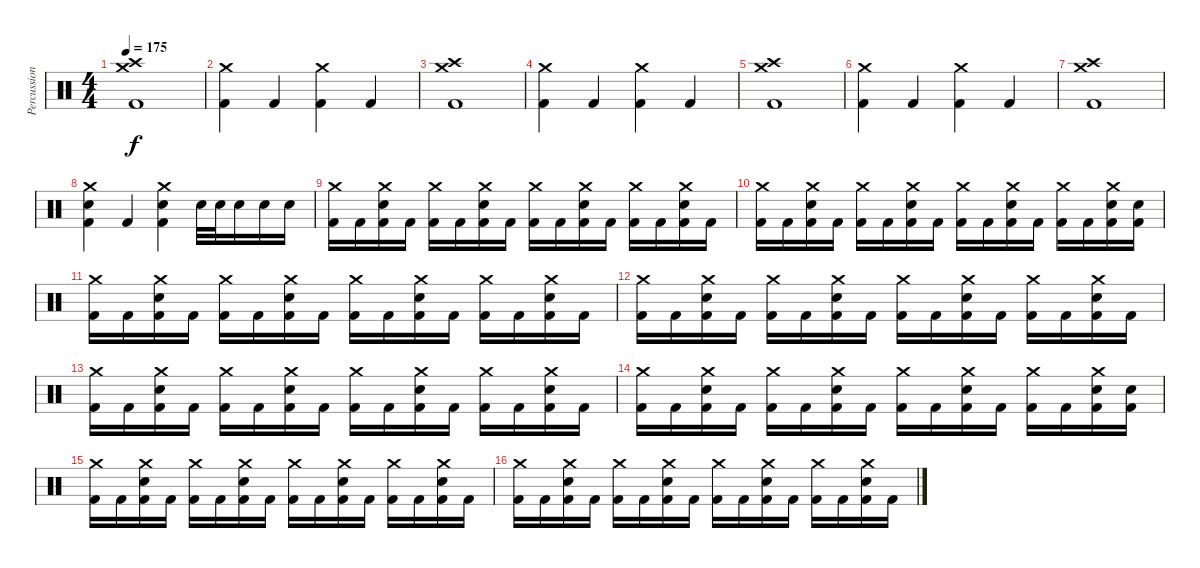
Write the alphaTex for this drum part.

\track ("Percussion" "Percussion") {instrument percussion}
\staff {score}
\articulation defaults
\ts (4 4)
\tempo 175
\clef neutral
\ks c
("Crash medium (hit)" "Crash high (hit)" "Kick (hit) 2").1{dy f} |
("Crash medium (hit)" "Kick (hit) 2").4 "Kick (hit) 2".4 ("Crash medium (hit)" "Kick (hit) 2").4 "Kick (hit) 2".4 |
("Crash medium (hit)" "Crash high (hit)" "Kick (hit) 2").1 |
("Crash medium (hit)" "Kick (hit) 2").4 "Kick (hit) 2".4 ("Crash medium (hit)" "Kick (hit) 2").4 "Kick (hit) 2".4 |
("Crash medium (hit)" "Crash high (hit)" "Kick (hit) 2").1 |
("Crash medium (hit)" "Kick (hit) 2").4 "Kick (hit) 2".4 ("Crash medium (hit)" "Kick (hit) 2").4 "Kick (hit) 2".4 |
("Crash medium (hit)" "Crash high (hit)" "Kick (hit) 2").1 |
("Crash medium (hit)" "Electric Snare (hit)" "Kick (hit) 2").4 "Kick (hit) 2".4 ("Crash medium (hit)" "Electric Snare (hit)" "Kick (hit) 2").4 "Electric Snare (hit)".32 "Electric Snare (hit)".32 "Electric Snare (hit)".16 "Electric Snare (hit)".16 "Electric Snare (hit)".16 |
("Crash medium (hit)" "Kick (hit) 2").16 "Kick (hit) 2".16 ("Crash medium (hit)" "Electric Snare (hit)" "Kick (hit) 2").16 "Kick (hit) 2".16 ("Crash medium (hit)" "Kick (hit) 2").16 "Kick (hit) 2".16 ("Crash medium (hit)" "Electric Snare (hit)" "Kick (hit) 2").16 "Kick (hit) 2".16 ("Crash medium (hit)" "Kick (hit) 2").16 "Kick (hit) 2".16 ("Crash medium (hit)" "Electric Snare (hit)" "Kick (hit) 2").16 "Kick (hit) 2".16 ("Crash medium (hit)" "Kick (hit) 2").16 "Kick (hit) 2".16 ("Crash medium (hit)" "Electric Snare (hit)" "Kick (hit) 2").16 "Kick (hit) 2".16 |
("Crash medium (hit)" "Kick (hit) 2").16 "Kick (hit) 2".16 ("Crash medium (hit)" "Electric Snare (hit)" "Kick (hit) 2").16 "Kick (hit) 2".16 ("Crash medium (hit)" "Kick (hit) 2").16 "Kick (hit) 2".16 ("Crash medium (hit)" "Electric Snare (hit)" "Kick (hit) 2").16 "Kick (hit) 2".16 ("Crash medium (hit)" "Kick (hit) 2").16 "Kick (hit) 2".16 ("Crash medium (hit)" "Electric Snare (hit)" "Kick (hit) 2").16 "Kick (hit) 2".16 ("Crash medium (hit)" "Kick (hit) 2").16 "Kick (hit) 2".16 ("Crash medium (hit)" "Electric Snare (hit)" "Kick (hit) 2").16 ("Electric Snare (hit)" "Kick (hit) 2").16 |
("Crash medium (hit)" "Kick (hit) 2").16 "Kick (hit) 2".16 ("Crash medium (hit)" "Electric Snare (hit)" "Kick (hit) 2").16 "Kick (hit) 2".16 ("Crash medium (hit)" "Kick (hit) 2").16 "Kick (hit) 2".16 ("Crash medium (hit)" "Electric Snare (hit)" "Kick (hit) 2").16 "Kick (hit) 2".16 ("Crash medium (hit)" "Kick (hit) 2").16 "Kick (hit) 2".16 ("Crash medium (hit)" "Electric Snare (hit)" "Kick (hit) 2").16 "Kick (hit) 2".16 ("Crash medium (hit)" "Kick (hit) 2").16 "Kick (hit) 2".16 ("Crash medium (hit)" "Electric Snare (hit)" "Kick (hit) 2").16 "Kick (hit) 2".16 |
("Crash medium (hit)" "Kick (hit) 2").16 "Kick (hit) 2".16 ("Crash medium (hit)" "Electric Snare (hit)" "Kick (hit) 2").16 "Kick (hit) 2".16 ("Crash medium (hit)" "Kick (hit) 2").16 "Kick (hit) 2".16 ("Crash medium (hit)" "Electric Snare (hit)" "Kick (hit) 2").16 "Kick (hit) 2".16 ("Crash medium (hit)" "Kick (hit) 2").16 "Kick (hit) 2".16 ("Crash medium (hit)" "Electric Snare (hit)" "Kick (hit) 2").16 "Kick (hit) 2".16 ("Crash medium (hit)" "Kick (hit) 2").16 "Kick (hit) 2".16 ("Crash medium (hit)" "Electric Snare (hit)" "Kick (hit) 2").16 "Kick (hit) 2".16 |
("Crash medium (hit)" "Kick (hit) 2").16 "Kick (hit) 2".16 ("Crash medium (hit)" "Electric Snare (hit)" "Kick (hit) 2").16 "Kick (hit) 2".16 ("Crash medium (hit)" "Kick (hit) 2").16 "Kick (hit) 2".16 ("Crash medium (hit)" "Electric Snare (hit)" "Kick (hit) 2").16 "Kick (hit) 2".16 ("Crash medium (hit)" "Kick (hit) 2").16 "Kick (hit) 2".16 ("Crash medium (hit)" "Electric Snare (hit)" "Kick (hit) 2").16 "Kick (hit) 2".16 ("Crash medium (hit)" "Kick (hit) 2").16 "Kick (hit) 2".16 ("Crash medium (hit)" "Electric Snare (hit)" "Kick (hit) 2").16 "Kick (hit) 2".16 |
("Crash medium (hit)" "Kick (hit) 2").16 "Kick (hit) 2".16 ("Crash medium (hit)" "Electric Snare (hit)" "Kick (hit) 2").16 "Kick (hit) 2".16 ("Crash medium (hit)" "Kick (hit) 2").16 "Kick (hit) 2".16 ("Crash medium (hit)" "Electric Snare (hit)" "Kick (hit) 2").16 "Kick (hit) 2".16 ("Crash medium (hit)" "Kick (hit) 2").16 "Kick (hit) 2".16 ("Crash medium (hit)" "Electric Snare (hit)" "Kick (hit) 2").16 "Kick (hit) 2".16 ("Crash medium (hit)" "Kick (hit) 2").16 "Kick (hit) 2".16 ("Crash medium (hit)" "Electric Snare (hit)" "Kick (hit) 2").16 ("Electric Snare (hit)" "Kick (hit) 2").16 |
("Crash medium (hit)" "Kick (hit) 2").16 "Kick (hit) 2".16 ("Crash medium (hit)" "Electric Snare (hit)" "Kick (hit) 2").16 "Kick (hit) 2".16 ("Crash medium (hit)" "Kick (hit) 2").16 "Kick (hit) 2".16 ("Crash medium (hit)" "Electric Snare (hit)" "Kick (hit) 2").16 "Kick (hit) 2".16 ("Crash medium (hit)" "Kick (hit) 2").16 "Kick (hit) 2".16 ("Crash medium (hit)" "Electric Snare (hit)" "Kick (hit) 2").16 "Kick (hit) 2".16 ("Crash medium (hit)" "Kick (hit) 2").16 "Kick (hit) 2".16 ("Crash medium (hit)" "Electric Snare (hit)" "Kick (hit) 2").16 "Kick (hit) 2".16 |
("Crash medium (hit)" "Kick (hit) 2").16 "Kick (hit) 2".16 ("Crash medium (hit)" "Electric Snare (hit)" "Kick (hit) 2").16 "Kick (hit) 2".16 ("Crash medium (hit)" "Kick (hit) 2").16 "Kick (hit) 2".16 ("Crash medium (hit)" "Electric Snare (hit)" "Kick (hit) 2").16 "Kick (hit) 2".16 ("Crash medium (hit)" "Kick (hit) 2").16 "Kick (hit) 2".16 ("Crash medium (hit)" "Electric Snare (hit)" "Kick (hit) 2").16 "Kick (hit) 2".16 ("Crash medium (hit)" "Kick (hit) 2").16 "Kick (hit) 2".16 ("Crash medium (hit)" "Electric Snare (hit)" "Kick (hit) 2").16 "Kick (hit) 2".16
